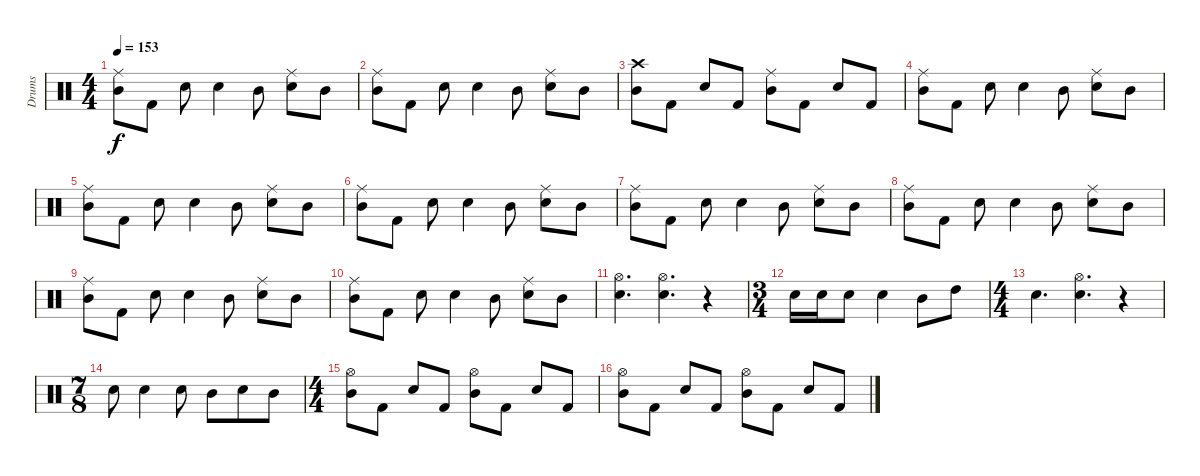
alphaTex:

\track ("Drums" "Drums") {instrument percussion}
\staff {score}
\articulation defaults
\ts (4 4)
\tempo 153
\clef neutral
\ks c
("Ride (middle)" "Mid Tom (hit)").8{dy f} "Kick (hit) 2".8 "Electric Snare (hit)".8 "Electric Snare (hit)".4 "Mid Tom (hit)".8 ("Ride (middle)" "Electric Snare (hit)").8 "Mid Tom (hit)".8 |
("Ride (middle)" "Mid Tom (hit)").8 "Kick (hit) 2".8 "Electric Snare (hit)".8 "Electric Snare (hit)".4 "Mid Tom (hit)".8 ("Ride (middle)" "Electric Snare (hit)").8 "Mid Tom (hit)".8 |
("Crash high (hit)" "Mid Tom (hit)").8 "Kick (hit) 2".8 "Electric Snare (hit)".8 "Kick (hit) 2".8 ("Ride (middle)" "Mid Tom (hit)").8 "Kick (hit) 2".8 "Electric Snare (hit)".8 "Kick (hit) 2".8 |
("Ride (middle)" "Mid Tom (hit)").8 "Kick (hit) 2".8 "Electric Snare (hit)".8 "Electric Snare (hit)".4 "Mid Tom (hit)".8 ("Ride (middle)" "Electric Snare (hit)").8 "Mid Tom (hit)".8 |
("Ride (middle)" "Mid Tom (hit)").8 "Kick (hit) 2".8 "Electric Snare (hit)".8 "Electric Snare (hit)".4 "Mid Tom (hit)".8 ("Ride (middle)" "Electric Snare (hit)").8 "Mid Tom (hit)".8 |
("Ride (middle)" "Mid Tom (hit)").8 "Kick (hit) 2".8 "Electric Snare (hit)".8 "Electric Snare (hit)".4 "Mid Tom (hit)".8 ("Ride (middle)" "Electric Snare (hit)").8 "Mid Tom (hit)".8 |
("Ride (middle)" "Mid Tom (hit)").8 "Kick (hit) 2".8 "Electric Snare (hit)".8 "Electric Snare (hit)".4 "Mid Tom (hit)".8 ("Ride (middle)" "Electric Snare (hit)").8 "Mid Tom (hit)".8 |
("Ride (middle)" "Mid Tom (hit)").8 "Kick (hit) 2".8 "Electric Snare (hit)".8 "Electric Snare (hit)".4 "Mid Tom (hit)".8 ("Ride (middle)" "Electric Snare (hit)").8 "Mid Tom (hit)".8 |
("Ride (middle)" "Mid Tom (hit)").8 "Kick (hit) 2".8 "Electric Snare (hit)".8 "Electric Snare (hit)".4 "Mid Tom (hit)".8 ("Ride (middle)" "Electric Snare (hit)").8 "Mid Tom (hit)".8 |
("Ride (middle)" "Mid Tom (hit)").8 "Kick (hit) 2".8 "Electric Snare (hit)".8 "Electric Snare (hit)".4 "Mid Tom (hit)".8 ("Ride (middle)" "Electric Snare (hit)").8 "Mid Tom (hit)".8 |
("Hi-Hat (open)" "Electric Snare (hit)").4{d} ("Electric Snare (hit)" "Hi-Hat (open)").4{d} r.4 |
\ts (3 4)
"Electric Snare (hit)".16 "Electric Snare (hit)".16 "Electric Snare (hit)".8 "Electric Snare (hit)".4 "Mid Tom (hit)".8 "High Tom (hit)".8 |
\ts (4 4)
"Electric Snare (hit)".4{d} ("Electric Snare (hit)" "Hi-Hat (open)").4{d} r.4 |
\ts (7 8)
"Electric Snare (hit)".8 "Electric Snare (hit)".4 "Electric Snare (hit)".8 "Mid Tom (hit)".8 "Electric Snare (hit)".8 "Mid Tom (hit)".8 |
\ts (4 4)
("Hi-Hat (open)" "Mid Tom (hit)").8 "Kick (hit) 2".8 "Electric Snare (hit)".8 "Kick (hit) 2".8 ("Hi-Hat (open)" "Mid Tom (hit)").8 "Kick (hit) 2".8 "Electric Snare (hit)".8 "Kick (hit) 2".8 |
("Hi-Hat (open)" "Mid Tom (hit)").8 "Kick (hit) 2".8 "Electric Snare (hit)".8 "Kick (hit) 2".8 ("Hi-Hat (open)" "Mid Tom (hit)").8 "Kick (hit) 2".8 "Electric Snare (hit)".8 "Kick (hit) 2".8
